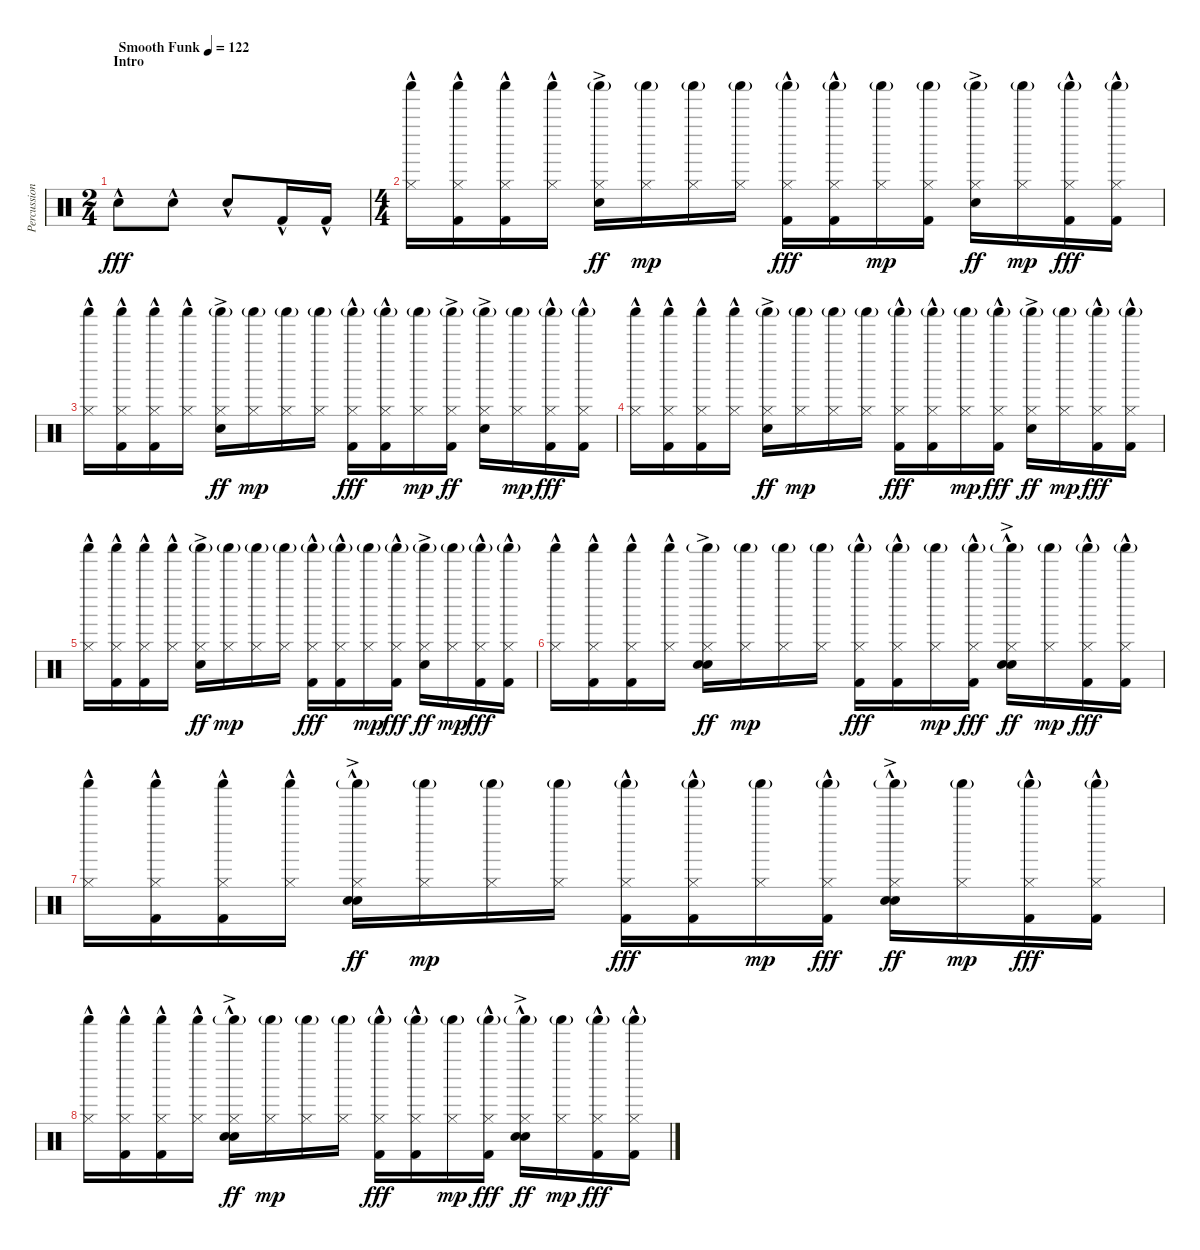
\track ("Percussion" "Percussion") {instrument percussion}
\staff {score}
\articulation defaults
\ts (2 4)
\section ("" "Intro")
\tempo (122 "Smooth Funk")
\clef neutral
\ks c "Snare (hit) 2"{hac}.8{dy fff} "Snare (hit) 2"{hac}.8 "Snare (hit) 2"{hac}.8 "Kick (hit) 2"{hac}.16 "Kick (hit) 2"{hac}.16
|
\ts (4 4)
("Shaker (hit)" "Hi-Hat (closed)"{hac}).16 ("Shaker (hit)" "Hi-Hat (closed)"{hac} "Kick (hit) 2"{hac}).16 ("Shaker (hit)" "Hi-Hat (closed)"{hac} "Kick (hit) 2"{hac}).16 ("Shaker (hit)" "Hi-Hat (closed)"{hac}).16 ("Shaker (hit)"{g} "Hi-Hat (closed)" "Snare (hit) 2"{ac}).16{dy ff} ("Shaker (hit)"{g} "Hi-Hat (closed)").16{dy mp} ("Shaker (hit)"{g} "Hi-Hat (closed)").16 ("Shaker (hit)"{g} "Hi-Hat (closed)").16 ("Shaker (hit)"{g} "Hi-Hat (closed)" "Kick (hit) 2"{hac}).16{dy fff} ("Shaker (hit)"{g} "Hi-Hat (closed)" "Kick (hit) 2"{hac}).16 ("Shaker (hit)"{g} "Hi-Hat (closed)").16{dy mp} ("Shaker (hit)"{g} "Hi-Hat (closed)" "Kick (hit) 2").16 ("Shaker (hit)"{g} "Hi-Hat (closed)" "Snare (hit) 2"{ac}).16{dy ff} ("Shaker (hit)"{g} "Hi-Hat (closed)").16{dy mp} ("Shaker (hit)"{g} "Hi-Hat (closed)" "Kick (hit) 2"{hac}).16{dy fff} ("Shaker (hit)"{g} "Hi-Hat (closed)" "Kick (hit) 2"{hac}).16 |
("Shaker (hit)" "Hi-Hat (closed)"{hac}).16 ("Shaker (hit)" "Hi-Hat (closed)"{hac} "Kick (hit) 2"{hac}).16 ("Shaker (hit)" "Hi-Hat (closed)"{hac} "Kick (hit) 2"{hac}).16 ("Shaker (hit)" "Hi-Hat (closed)"{hac}).16 ("Shaker (hit)"{g} "Hi-Hat (closed)" "Snare (hit) 2"{ac}).16{dy ff} ("Shaker (hit)"{g} "Hi-Hat (closed)").16{dy mp} ("Shaker (hit)"{g} "Hi-Hat (closed)").16 ("Shaker (hit)"{g} "Hi-Hat (closed)").16 ("Shaker (hit)"{g} "Hi-Hat (closed)" "Kick (hit) 2"{hac}).16{dy fff} ("Shaker (hit)"{g} "Hi-Hat (closed)" "Kick (hit) 2"{hac}).16 ("Shaker (hit)"{g} "Hi-Hat (closed)").16{dy mp} ("Shaker (hit)"{g} "Hi-Hat (closed)" "Kick (hit) 2"{ac}).16{dy ff} ("Shaker (hit)"{g} "Hi-Hat (closed)" "Snare (hit) 2"{ac}).16 ("Shaker (hit)"{g} "Hi-Hat (closed)").16{dy mp} ("Shaker (hit)"{g} "Hi-Hat (closed)" "Kick (hit) 2"{hac}).16{dy fff} ("Shaker (hit)"{g} "Hi-Hat (closed)" "Kick (hit) 2"{hac}).16 |
("Shaker (hit)" "Hi-Hat (closed)"{hac}).16 ("Shaker (hit)" "Hi-Hat (closed)"{hac} "Kick (hit) 2"{hac}).16 ("Shaker (hit)" "Hi-Hat (closed)"{hac} "Kick (hit) 2"{hac}).16 ("Shaker (hit)" "Hi-Hat (closed)"{hac}).16 ("Shaker (hit)"{g} "Hi-Hat (closed)" "Snare (hit) 2"{ac}).16{dy ff} ("Shaker (hit)"{g} "Hi-Hat (closed)").16{dy mp} ("Shaker (hit)"{g} "Hi-Hat (closed)").16 ("Shaker (hit)"{g} "Hi-Hat (closed)").16 ("Shaker (hit)"{g} "Hi-Hat (closed)" "Kick (hit) 2"{hac}).16{dy fff} ("Shaker (hit)"{g} "Hi-Hat (closed)" "Kick (hit) 2"{hac}).16 ("Shaker (hit)"{g} "Hi-Hat (closed)").16{dy mp} ("Shaker (hit)"{g} "Hi-Hat (closed)" "Kick (hit) 2"{hac}).16{dy fff} ("Shaker (hit)"{g} "Hi-Hat (closed)" "Snare (hit) 2"{ac}).16{dy ff} ("Shaker (hit)"{g} "Hi-Hat (closed)").16{dy mp} ("Shaker (hit)"{g} "Hi-Hat (closed)" "Kick (hit) 2"{hac}).16{dy fff} ("Shaker (hit)"{g} "Hi-Hat (closed)" "Kick (hit) 2"{hac}).16 |
("Shaker (hit)" "Hi-Hat (closed)"{hac}).16 ("Shaker (hit)" "Hi-Hat (closed)"{hac} "Kick (hit) 2"{hac}).16 ("Shaker (hit)" "Hi-Hat (closed)"{hac} "Kick (hit) 2"{hac}).16 ("Shaker (hit)" "Hi-Hat (closed)"{hac}).16 ("Shaker (hit)"{g} "Hi-Hat (closed)" "Snare (hit) 2"{ac}).16{dy ff} ("Shaker (hit)"{g} "Hi-Hat (closed)").16{dy mp} ("Shaker (hit)"{g} "Hi-Hat (closed)").16 ("Shaker (hit)"{g} "Hi-Hat (closed)").16 ("Shaker (hit)"{g} "Hi-Hat (closed)" "Kick (hit) 2"{hac}).16{dy fff} ("Shaker (hit)"{g} "Hi-Hat (closed)" "Kick (hit) 2"{hac}).16 ("Shaker (hit)"{g} "Hi-Hat (closed)").16{dy mp} ("Shaker (hit)"{g} "Hi-Hat (closed)" "Kick (hit) 2"{hac}).16{dy fff} ("Shaker (hit)"{g} "Hi-Hat (closed)" "Snare (hit) 2"{ac}).16{dy ff} ("Shaker (hit)"{g} "Hi-Hat (closed)").16{dy mp} ("Shaker (hit)"{g} "Hi-Hat (closed)" "Kick (hit) 2"{hac}).16{dy fff} ("Shaker (hit)"{g} "Hi-Hat (closed)" "Kick (hit) 2"{hac}).16 |
("Shaker (hit)" "Hi-Hat (closed)"{hac}).16 ("Shaker (hit)" "Hi-Hat (closed)"{hac} "Kick (hit) 2"{hac}).16 ("Shaker (hit)" "Hi-Hat (closed)"{hac} "Kick (hit) 2"{hac}).16 ("Shaker (hit)" "Hi-Hat (closed)"{hac}).16 ("Shaker (hit)"{g} "Hi-Hat (closed)" "Hand Clap (hit)"{ac} "Snare (hit) 2"{ac}).16{dy ff} ("Shaker (hit)"{g} "Hi-Hat (closed)").16{dy mp} ("Shaker (hit)"{g} "Hi-Hat (closed)").16 ("Shaker (hit)"{g} "Hi-Hat (closed)").16 ("Shaker (hit)"{g} "Hi-Hat (closed)" "Kick (hit) 2"{hac}).16{dy fff} ("Shaker (hit)"{g} "Hi-Hat (closed)" "Kick (hit) 2"{hac}).16 ("Shaker (hit)"{g} "Hi-Hat (closed)").16{dy mp} ("Shaker (hit)"{g} "Hi-Hat (closed)" "Kick (hit) 2"{hac}).16{dy fff} ("Shaker (hit)"{g} "Hi-Hat (closed)" "Hand Clap (hit)"{hac} "Snare (hit) 2"{ac}).16{dy ff} ("Shaker (hit)"{g} "Hi-Hat (closed)").16{dy mp} ("Shaker (hit)"{g} "Hi-Hat (closed)" "Kick (hit) 2"{hac}).16{dy fff} ("Shaker (hit)"{g} "Hi-Hat (closed)" "Kick (hit) 2"{hac}).16 |
("Shaker (hit)" "Hi-Hat (closed)"{hac}).16 ("Shaker (hit)" "Hi-Hat (closed)"{hac} "Kick (hit) 2"{hac}).16 ("Shaker (hit)" "Hi-Hat (closed)"{hac} "Kick (hit) 2"{hac}).16 ("Shaker (hit)" "Hi-Hat (closed)"{hac}).16 ("Shaker (hit)"{g} "Hi-Hat (closed)" "Hand Clap (hit)"{hac} "Snare (hit) 2"{ac}).16{dy ff} ("Shaker (hit)"{g} "Hi-Hat (closed)").16{dy mp} ("Shaker (hit)"{g} "Hi-Hat (closed)").16 ("Shaker (hit)"{g} "Hi-Hat (closed)").16 ("Shaker (hit)"{g} "Hi-Hat (closed)" "Kick (hit) 2"{hac}).16{dy fff} ("Shaker (hit)"{g} "Hi-Hat (closed)" "Kick (hit) 2"{hac}).16 ("Shaker (hit)"{g} "Hi-Hat (closed)").16{dy mp} ("Shaker (hit)"{g} "Hi-Hat (closed)" "Kick (hit) 2"{hac}).16{dy fff} ("Shaker (hit)"{g} "Hi-Hat (closed)" "Hand Clap (hit)"{hac} "Snare (hit) 2"{ac}).16{dy ff} ("Shaker (hit)"{g} "Hi-Hat (closed)").16{dy mp} ("Shaker (hit)"{g} "Hi-Hat (closed)" "Kick (hit) 2"{hac}).16{dy fff} ("Shaker (hit)"{g} "Hi-Hat (closed)" "Kick (hit) 2"{hac}).16 |
("Shaker (hit)" "Hi-Hat (closed)"{hac}).16 ("Shaker (hit)" "Hi-Hat (closed)"{hac} "Kick (hit) 2"{hac}).16 ("Shaker (hit)" "Hi-Hat (closed)"{hac} "Kick (hit) 2"{hac}).16 ("Shaker (hit)" "Hi-Hat (closed)"{hac}).16 ("Shaker (hit)"{g} "Hi-Hat (closed)" "Hand Clap (hit)"{hac} "Snare (hit) 2"{ac}).16{dy ff} ("Shaker (hit)"{g} "Hi-Hat (closed)").16{dy mp} ("Shaker (hit)"{g} "Hi-Hat (closed)").16 ("Shaker (hit)"{g} "Hi-Hat (closed)").16 ("Shaker (hit)"{g} "Hi-Hat (closed)" "Kick (hit) 2"{hac}).16{dy fff} ("Shaker (hit)"{g} "Hi-Hat (closed)" "Kick (hit) 2"{hac}).16 ("Shaker (hit)"{g} "Hi-Hat (closed)").16{dy mp} ("Shaker (hit)"{g} "Hi-Hat (closed)" "Kick (hit) 2"{hac}).16{dy fff} ("Shaker (hit)"{g} "Hi-Hat (closed)" "Hand Clap (hit)"{hac} "Snare (hit) 2"{ac}).16{dy ff} ("Shaker (hit)"{g} "Hi-Hat (closed)").16{dy mp} ("Shaker (hit)"{g} "Hi-Hat (closed)" "Kick (hit) 2"{hac}).16{dy fff} ("Shaker (hit)"{g} "Hi-Hat (closed)" "Kick (hit) 2"{hac}).16
